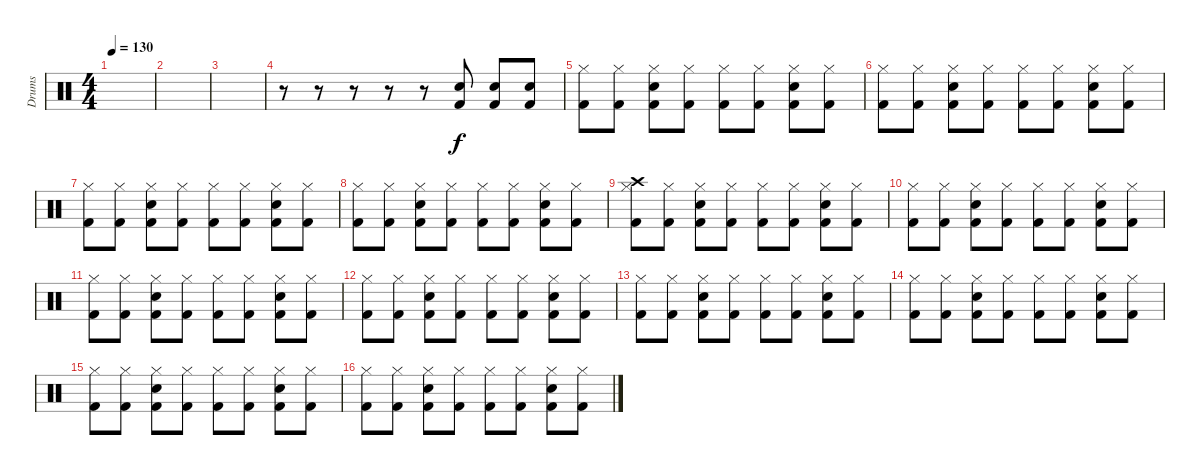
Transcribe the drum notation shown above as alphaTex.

\track ("Drums" "Drums") {instrument percussion}
\staff {score}
\articulation defaults
\ts (4 4)
\tempo 130
\clef neutral
\ks c
|
|
|
r.8 r.8 r.8 r.8 r.8 ("Kick (hit) 2" "Snare (hit) 2").8 ("Kick (hit) 2" "Snare (hit) 2").8 ("Kick (hit) 2" "Snare (hit) 2").8 |
("Kick (hit) 2" "Hi-Hat (closed)").8 ("Kick (hit) 2" "Hi-Hat (closed)").8 ("Snare (hit) 2" "Kick (hit) 2" "Hi-Hat (closed)").8 ("Kick (hit) 2" "Hi-Hat (closed)").8 ("Kick (hit) 2" "Hi-Hat (closed)").8 ("Kick (hit) 2" "Hi-Hat (closed)").8 ("Snare (hit) 2" "Kick (hit) 2" "Hi-Hat (closed)").8 ("Kick (hit) 2" "Hi-Hat (closed)").8 |
("Kick (hit) 2" "Hi-Hat (closed)").8 ("Kick (hit) 2" "Hi-Hat (closed)").8 ("Snare (hit) 2" "Kick (hit) 2" "Hi-Hat (closed)").8 ("Kick (hit) 2" "Hi-Hat (closed)").8 ("Kick (hit) 2" "Hi-Hat (closed)").8 ("Kick (hit) 2" "Hi-Hat (closed)").8 ("Snare (hit) 2" "Kick (hit) 2" "Hi-Hat (closed)").8 ("Kick (hit) 2" "Hi-Hat (closed)").8 |
("Kick (hit) 2" "Hi-Hat (closed)").8 ("Kick (hit) 2" "Hi-Hat (closed)").8 ("Snare (hit) 2" "Kick (hit) 2" "Hi-Hat (closed)").8 ("Kick (hit) 2" "Hi-Hat (closed)").8 ("Kick (hit) 2" "Hi-Hat (closed)").8 ("Kick (hit) 2" "Hi-Hat (closed)").8 ("Snare (hit) 2" "Kick (hit) 2" "Hi-Hat (closed)").8 ("Kick (hit) 2" "Hi-Hat (closed)").8 |
("Kick (hit) 2" "Hi-Hat (closed)").8 ("Kick (hit) 2" "Hi-Hat (closed)").8 ("Snare (hit) 2" "Kick (hit) 2" "Hi-Hat (closed)").8 ("Kick (hit) 2" "Hi-Hat (closed)").8 ("Kick (hit) 2" "Hi-Hat (closed)").8 ("Kick (hit) 2" "Hi-Hat (closed)").8 ("Snare (hit) 2" "Kick (hit) 2" "Hi-Hat (closed)").8 ("Kick (hit) 2" "Hi-Hat (closed)").8 |
("Kick (hit) 2" "Hi-Hat (closed)" "Crash high (hit)").8 ("Kick (hit) 2" "Hi-Hat (closed)").8 ("Snare (hit) 2" "Kick (hit) 2" "Hi-Hat (closed)").8 ("Kick (hit) 2" "Hi-Hat (closed)").8 ("Kick (hit) 2" "Hi-Hat (closed)").8 ("Kick (hit) 2" "Hi-Hat (closed)").8 ("Snare (hit) 2" "Kick (hit) 2" "Hi-Hat (closed)").8 ("Kick (hit) 2" "Hi-Hat (closed)").8 |
("Kick (hit) 2" "Hi-Hat (closed)").8 ("Kick (hit) 2" "Hi-Hat (closed)").8 ("Snare (hit) 2" "Kick (hit) 2" "Hi-Hat (closed)").8 ("Kick (hit) 2" "Hi-Hat (closed)").8 ("Kick (hit) 2" "Hi-Hat (closed)").8 ("Kick (hit) 2" "Hi-Hat (closed)").8 ("Snare (hit) 2" "Kick (hit) 2" "Hi-Hat (closed)").8 ("Kick (hit) 2" "Hi-Hat (closed)").8 |
("Kick (hit) 2" "Hi-Hat (closed)").8 ("Kick (hit) 2" "Hi-Hat (closed)").8 ("Snare (hit) 2" "Kick (hit) 2" "Hi-Hat (closed)").8 ("Kick (hit) 2" "Hi-Hat (closed)").8 ("Kick (hit) 2" "Hi-Hat (closed)").8 ("Kick (hit) 2" "Hi-Hat (closed)").8 ("Snare (hit) 2" "Kick (hit) 2" "Hi-Hat (closed)").8 ("Kick (hit) 2" "Hi-Hat (closed)").8 |
("Kick (hit) 2" "Hi-Hat (closed)").8 ("Kick (hit) 2" "Hi-Hat (closed)").8 ("Snare (hit) 2" "Kick (hit) 2" "Hi-Hat (closed)").8 ("Kick (hit) 2" "Hi-Hat (closed)").8 ("Kick (hit) 2" "Hi-Hat (closed)").8 ("Kick (hit) 2" "Hi-Hat (closed)").8 ("Snare (hit) 2" "Kick (hit) 2" "Hi-Hat (closed)").8 ("Kick (hit) 2" "Hi-Hat (closed)").8 |
("Kick (hit) 2" "Hi-Hat (closed)").8 ("Kick (hit) 2" "Hi-Hat (closed)").8 ("Snare (hit) 2" "Kick (hit) 2" "Hi-Hat (closed)").8 ("Kick (hit) 2" "Hi-Hat (closed)").8 ("Kick (hit) 2" "Hi-Hat (closed)").8 ("Kick (hit) 2" "Hi-Hat (closed)").8 ("Snare (hit) 2" "Kick (hit) 2" "Hi-Hat (closed)").8 ("Kick (hit) 2" "Hi-Hat (closed)").8 |
("Kick (hit) 2" "Hi-Hat (closed)").8 ("Kick (hit) 2" "Hi-Hat (closed)").8 ("Snare (hit) 2" "Kick (hit) 2" "Hi-Hat (closed)").8 ("Kick (hit) 2" "Hi-Hat (closed)").8 ("Kick (hit) 2" "Hi-Hat (closed)").8 ("Kick (hit) 2" "Hi-Hat (closed)").8 ("Snare (hit) 2" "Kick (hit) 2" "Hi-Hat (closed)").8 ("Kick (hit) 2" "Hi-Hat (closed)").8 |
("Kick (hit) 2" "Hi-Hat (closed)").8 ("Kick (hit) 2" "Hi-Hat (closed)").8 ("Snare (hit) 2" "Kick (hit) 2" "Hi-Hat (closed)").8 ("Kick (hit) 2" "Hi-Hat (closed)").8 ("Kick (hit) 2" "Hi-Hat (closed)").8 ("Kick (hit) 2" "Hi-Hat (closed)").8 ("Snare (hit) 2" "Kick (hit) 2" "Hi-Hat (closed)").8 ("Kick (hit) 2" "Hi-Hat (closed)").8 |
("Kick (hit) 2" "Hi-Hat (closed)").8 ("Kick (hit) 2" "Hi-Hat (closed)").8 ("Snare (hit) 2" "Kick (hit) 2" "Hi-Hat (closed)").8 ("Kick (hit) 2" "Hi-Hat (closed)").8 ("Kick (hit) 2" "Hi-Hat (closed)").8 ("Kick (hit) 2" "Hi-Hat (closed)").8 ("Snare (hit) 2" "Kick (hit) 2" "Hi-Hat (closed)").8 ("Kick (hit) 2" "Hi-Hat (closed)").8
